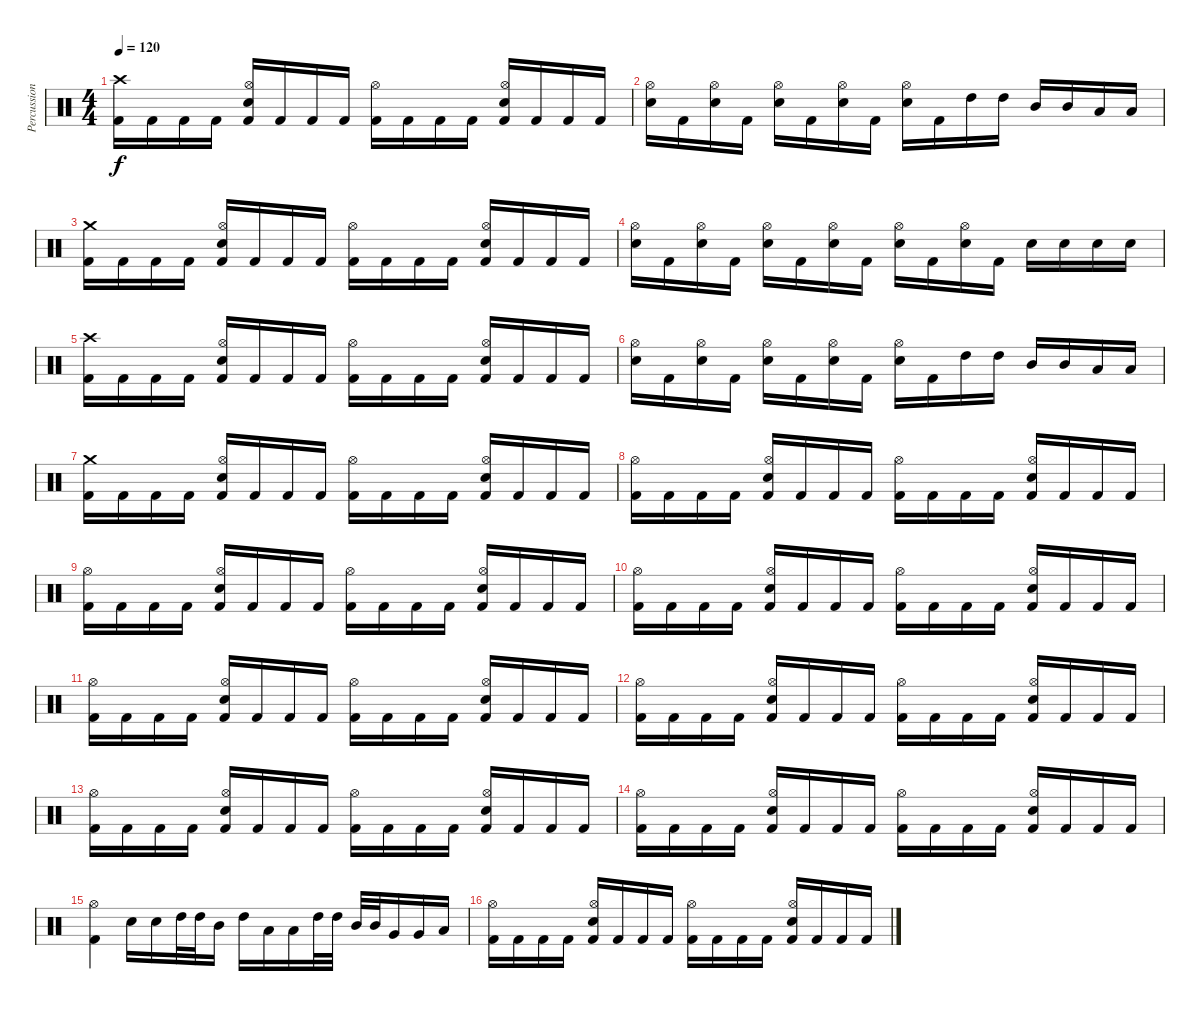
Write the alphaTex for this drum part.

\track ("Percussion" "Percussion") {instrument percussion}
\staff {score}
\articulation defaults
\ts (4 4)
\tempo 120
\clef neutral
\ks c
("Kick (hit) 2" "Crash high (hit)").16{dy f} "Kick (hit) 2".16 "Kick (hit) 2".16 "Kick (hit) 2".16 ("Kick (hit) 2" "Hi-Hat (open)" "Electric Snare (hit)").16 "Kick (hit) 2".16 "Kick (hit) 2".16 "Kick (hit) 2".16 ("Kick (hit) 2" "Hi-Hat (open)").16 "Kick (hit) 2".16 "Kick (hit) 2".16 "Kick (hit) 2".16 ("Kick (hit) 2" "Hi-Hat (open)" "Electric Snare (hit)").16 "Kick (hit) 2".16 "Kick (hit) 2".16 "Kick (hit) 2".16 |
("Electric Snare (hit)" "Hi-Hat (open)").16 "Kick (hit) 2".16 ("Electric Snare (hit)" "Hi-Hat (open)").16 "Kick (hit) 2".16 ("Electric Snare (hit)" "Hi-Hat (open)").16 "Kick (hit) 2".16 ("Electric Snare (hit)" "Hi-Hat (open)").16 "Kick (hit) 2".16 ("Electric Snare (hit)" "Hi-Hat (open)").16 "Kick (hit) 2".16 "High Tom (hit)".16 "High Tom (hit)".16 "Mid Tom (hit)".16 "Mid Tom (hit)".16 "Low Tom (hit)".16 "Low Tom (hit)".16 |
("Kick (hit) 2" "Crash medium (hit)").16 "Kick (hit) 2".16 "Kick (hit) 2".16 "Kick (hit) 2".16 ("Kick (hit) 2" "Hi-Hat (open)" "Electric Snare (hit)").16 "Kick (hit) 2".16 "Kick (hit) 2".16 "Kick (hit) 2".16 ("Kick (hit) 2" "Hi-Hat (open)").16 "Kick (hit) 2".16 "Kick (hit) 2".16 "Kick (hit) 2".16 ("Kick (hit) 2" "Hi-Hat (open)" "Electric Snare (hit)").16 "Kick (hit) 2".16 "Kick (hit) 2".16 "Kick (hit) 2".16 |
("Electric Snare (hit)" "Hi-Hat (open)").16 "Kick (hit) 2".16 ("Electric Snare (hit)" "Hi-Hat (open)").16 "Kick (hit) 2".16 ("Electric Snare (hit)" "Hi-Hat (open)").16 "Kick (hit) 2".16 ("Electric Snare (hit)" "Hi-Hat (open)").16 "Kick (hit) 2".16 ("Electric Snare (hit)" "Hi-Hat (open)").16 "Kick (hit) 2".16 ("Electric Snare (hit)" "Hi-Hat (open)").16 "Kick (hit) 2".16 "Electric Snare (hit)".16 "Electric Snare (hit)".16 "Electric Snare (hit)".16 "Electric Snare (hit)".16 |
("Kick (hit) 2" "Crash high (hit)").16 "Kick (hit) 2".16 "Kick (hit) 2".16 "Kick (hit) 2".16 ("Kick (hit) 2" "Hi-Hat (open)" "Electric Snare (hit)").16 "Kick (hit) 2".16 "Kick (hit) 2".16 "Kick (hit) 2".16 ("Kick (hit) 2" "Hi-Hat (open)").16 "Kick (hit) 2".16 "Kick (hit) 2".16 "Kick (hit) 2".16 ("Kick (hit) 2" "Hi-Hat (open)" "Electric Snare (hit)").16 "Kick (hit) 2".16 "Kick (hit) 2".16 "Kick (hit) 2".16 |
("Electric Snare (hit)" "Hi-Hat (open)").16 "Kick (hit) 2".16 ("Electric Snare (hit)" "Hi-Hat (open)").16 "Kick (hit) 2".16 ("Electric Snare (hit)" "Hi-Hat (open)").16 "Kick (hit) 2".16 ("Electric Snare (hit)" "Hi-Hat (open)").16 "Kick (hit) 2".16 ("Electric Snare (hit)" "Hi-Hat (open)").16 "Kick (hit) 2".16 "High Tom (hit)".16 "High Tom (hit)".16 "Mid Tom (hit)".16 "Mid Tom (hit)".16 "Low Tom (hit)".16 "Low Tom (hit)".16 |
("Kick (hit) 2" "Crash medium (hit)").16 "Kick (hit) 2".16 "Kick (hit) 2".16 "Kick (hit) 2".16 ("Kick (hit) 2" "Hi-Hat (open)" "Electric Snare (hit)").16 "Kick (hit) 2".16 "Kick (hit) 2".16 "Kick (hit) 2".16 ("Kick (hit) 2" "Hi-Hat (open)").16 "Kick (hit) 2".16 "Kick (hit) 2".16 "Kick (hit) 2".16 ("Kick (hit) 2" "Hi-Hat (open)" "Electric Snare (hit)").16 "Kick (hit) 2".16 "Kick (hit) 2".16 "Kick (hit) 2".16 |
("Kick (hit) 2" "Hi-Hat (open)").16 "Kick (hit) 2".16 "Kick (hit) 2".16 "Kick (hit) 2".16 ("Kick (hit) 2" "Hi-Hat (open)" "Electric Snare (hit)").16 "Kick (hit) 2".16 "Kick (hit) 2".16 "Kick (hit) 2".16 ("Kick (hit) 2" "Hi-Hat (open)").16 "Kick (hit) 2".16 "Kick (hit) 2".16 "Kick (hit) 2".16 ("Kick (hit) 2" "Hi-Hat (open)" "Electric Snare (hit)").16 "Kick (hit) 2".16 "Kick (hit) 2".16 "Kick (hit) 2".16 |
("Kick (hit) 2" "Hi-Hat (open)").16 "Kick (hit) 2".16 "Kick (hit) 2".16 "Kick (hit) 2".16 ("Kick (hit) 2" "Hi-Hat (open)" "Electric Snare (hit)").16 "Kick (hit) 2".16 "Kick (hit) 2".16 "Kick (hit) 2".16 ("Kick (hit) 2" "Hi-Hat (open)").16 "Kick (hit) 2".16 "Kick (hit) 2".16 "Kick (hit) 2".16 ("Kick (hit) 2" "Hi-Hat (open)" "Electric Snare (hit)").16 "Kick (hit) 2".16 "Kick (hit) 2".16 "Kick (hit) 2".16 |
("Kick (hit) 2" "Hi-Hat (open)").16 "Kick (hit) 2".16 "Kick (hit) 2".16 "Kick (hit) 2".16 ("Kick (hit) 2" "Hi-Hat (open)" "Electric Snare (hit)").16 "Kick (hit) 2".16 "Kick (hit) 2".16 "Kick (hit) 2".16 ("Kick (hit) 2" "Hi-Hat (open)").16 "Kick (hit) 2".16 "Kick (hit) 2".16 "Kick (hit) 2".16 ("Kick (hit) 2" "Hi-Hat (open)" "Electric Snare (hit)").16 "Kick (hit) 2".16 "Kick (hit) 2".16 "Kick (hit) 2".16 |
("Kick (hit) 2" "Hi-Hat (open)").16 "Kick (hit) 2".16 "Kick (hit) 2".16 "Kick (hit) 2".16 ("Kick (hit) 2" "Hi-Hat (open)" "Electric Snare (hit)").16 "Kick (hit) 2".16 "Kick (hit) 2".16 "Kick (hit) 2".16 ("Kick (hit) 2" "Hi-Hat (open)").16 "Kick (hit) 2".16 "Kick (hit) 2".16 "Kick (hit) 2".16 ("Kick (hit) 2" "Hi-Hat (open)" "Electric Snare (hit)").16 "Kick (hit) 2".16 "Kick (hit) 2".16 "Kick (hit) 2".16 |
("Kick (hit) 2" "Hi-Hat (open)").16 "Kick (hit) 2".16 "Kick (hit) 2".16 "Kick (hit) 2".16 ("Kick (hit) 2" "Hi-Hat (open)" "Electric Snare (hit)").16 "Kick (hit) 2".16 "Kick (hit) 2".16 "Kick (hit) 2".16 ("Kick (hit) 2" "Hi-Hat (open)").16 "Kick (hit) 2".16 "Kick (hit) 2".16 "Kick (hit) 2".16 ("Kick (hit) 2" "Hi-Hat (open)" "Electric Snare (hit)").16 "Kick (hit) 2".16 "Kick (hit) 2".16 "Kick (hit) 2".16 |
("Kick (hit) 2" "Hi-Hat (open)").16 "Kick (hit) 2".16 "Kick (hit) 2".16 "Kick (hit) 2".16 ("Kick (hit) 2" "Hi-Hat (open)" "Electric Snare (hit)").16 "Kick (hit) 2".16 "Kick (hit) 2".16 "Kick (hit) 2".16 ("Kick (hit) 2" "Hi-Hat (open)").16 "Kick (hit) 2".16 "Kick (hit) 2".16 "Kick (hit) 2".16 ("Kick (hit) 2" "Hi-Hat (open)" "Electric Snare (hit)").16 "Kick (hit) 2".16 "Kick (hit) 2".16 "Kick (hit) 2".16 |
("Kick (hit) 2" "Hi-Hat (open)").16 "Kick (hit) 2".16 "Kick (hit) 2".16 "Kick (hit) 2".16 ("Kick (hit) 2" "Hi-Hat (open)" "Electric Snare (hit)").16 "Kick (hit) 2".16 "Kick (hit) 2".16 "Kick (hit) 2".16 ("Kick (hit) 2" "Hi-Hat (open)").16 "Kick (hit) 2".16 "Kick (hit) 2".16 "Kick (hit) 2".16 ("Kick (hit) 2" "Hi-Hat (open)" "Electric Snare (hit)").16 "Kick (hit) 2".16 "Kick (hit) 2".16 "Kick (hit) 2".16 |
("Kick (hit) 2" "Hi-Hat (open)").4 "Electric Snare (hit)".16 "Electric Snare (hit)".16 "High Tom (hit)".32 "High Tom (hit)".32 "Mid Tom (hit)".16 "High Tom (hit)".16 "Low Tom (hit)".16 "Low Tom (hit)".16 "High Tom (hit)".32 "High Tom (hit)".32 "Mid Tom (hit)".32 "Mid Tom (hit)".32 "Very Low Tom (hit)".16 "Very Low Tom (hit)".16 "Low Floor Tom (hit)".16 |
("Kick (hit) 2" "Hi-Hat (open)").16 "Kick (hit) 2".16 "Kick (hit) 2".16 "Kick (hit) 2".16 ("Kick (hit) 2" "Hi-Hat (open)" "Electric Snare (hit)").16 "Kick (hit) 2".16 "Kick (hit) 2".16 "Kick (hit) 2".16 ("Kick (hit) 2" "Hi-Hat (open)").16 "Kick (hit) 2".16 "Kick (hit) 2".16 "Kick (hit) 2".16 ("Kick (hit) 2" "Hi-Hat (open)" "Electric Snare (hit)").16 "Kick (hit) 2".16 "Kick (hit) 2".16 "Kick (hit) 2".16
